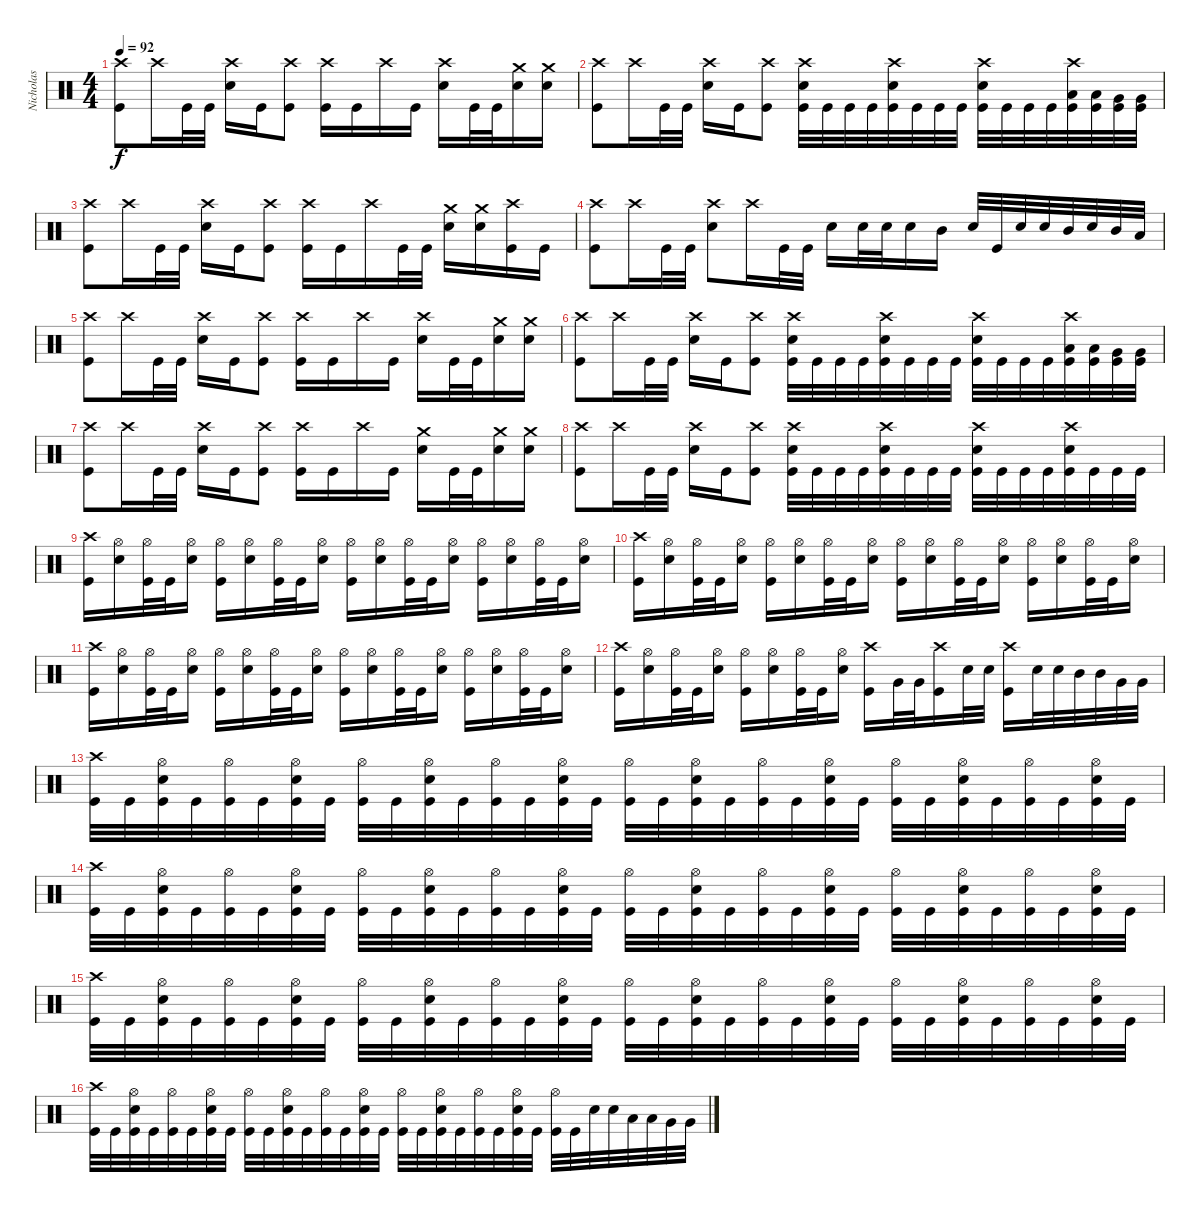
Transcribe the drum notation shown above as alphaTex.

\track ("Nicholas" "Nicholas") {instrument percussion}
\staff {score}
\articulation defaults
\ts (4 4)
\tempo 92
\clef neutral
\ks c
("Crash high (hit)" "Kick (hit)").8{dy f} "Crash high (hit)".16 "Kick (hit)".32 "Kick (hit)".32 ("Crash high (hit)" "Electric Snare (hit)").16 "Kick (hit)".16 ("Crash high (hit)" "Kick (hit)").8 ("Crash high (hit)" "Kick (hit)").16 "Kick (hit)".16 "Crash high (hit)".16 "Kick (hit)".16 ("Crash high (hit)" "Electric Snare (hit)").16 "Kick (hit)".32 "Kick (hit)".32 ("Crash medium (hit)" "Electric Snare (hit)").16 ("Crash medium (hit)" "Electric Snare (hit)").16 |
("Crash high (hit)" "Kick (hit)").8 "Crash high (hit)".16 "Kick (hit)".32 "Kick (hit)".32 ("Crash high (hit)" "Electric Snare (hit)").16 "Kick (hit)".16 ("Crash high (hit)" "Kick (hit)").8 ("Crash high (hit)" "Electric Snare (hit)" "Kick (hit)").32 "Kick (hit)".32 "Kick (hit)".32 "Kick (hit)".32 ("Crash high (hit)" "Electric Snare (hit)" "Kick (hit)").32 "Kick (hit)".32 "Kick (hit)".32 "Kick (hit)".32 ("Crash high (hit)" "Electric Snare (hit)" "Kick (hit)").32 "Kick (hit)".32 "Kick (hit)".32 "Kick (hit)".32 ("Crash high (hit)" "Low Tom (hit)" "Kick (hit)").32 ("Low Tom (hit)" "Kick (hit)").32 ("Very Low Tom (hit)" "Kick (hit)").32 ("Very Low Tom (hit)" "Kick (hit)").32 |
("Crash high (hit)" "Kick (hit)").8 "Crash high (hit)".16 "Kick (hit)".32 "Kick (hit)".32 ("Crash high (hit)" "Electric Snare (hit)").16 "Kick (hit)".16 ("Crash high (hit)" "Kick (hit)").8 ("Crash high (hit)" "Kick (hit)").16 "Kick (hit)".16 "Crash high (hit)".16 "Kick (hit)".32 "Kick (hit)".32 ("Crash medium (hit)" "Electric Snare (hit)").16 ("Crash medium (hit)" "Electric Snare (hit)").16 ("Crash high (hit)" "Kick (hit)").16 "Kick (hit)".16 |
("Crash high (hit)" "Kick (hit)").8 "Crash high (hit)".16 "Kick (hit)".32 "Kick (hit)".32 ("Crash high (hit)" "Electric Snare (hit)").8 "Crash high (hit)".16 "Kick (hit)".32 "Kick (hit)".32 "Electric Snare (hit)".16 "Electric Snare (hit)".32 "Electric Snare (hit)".32 "Electric Snare (hit)".16 "Mid Tom (hit)".16 "Electric Snare (hit)".32 "Kick (hit)".32 "Electric Snare (hit)".32 "Electric Snare (hit)".32 "Mid Tom (hit)".32 "Electric Snare (hit)".32 "Mid Tom (hit)".32 "Low Tom (hit)".32 |
("Crash high (hit)" "Kick (hit)").8 "Crash high (hit)".16 "Kick (hit)".32 "Kick (hit)".32 ("Crash high (hit)" "Electric Snare (hit)").16 "Kick (hit)".16 ("Crash high (hit)" "Kick (hit)").8 ("Crash high (hit)" "Kick (hit)").16 "Kick (hit)".16 "Crash high (hit)".16 "Kick (hit)".16 ("Crash high (hit)" "Electric Snare (hit)").16 "Kick (hit)".32 "Kick (hit)".32 ("Crash medium (hit)" "Electric Snare (hit)").16 ("Crash medium (hit)" "Electric Snare (hit)").16 |
("Crash high (hit)" "Kick (hit)").8 "Crash high (hit)".16 "Kick (hit)".32 "Kick (hit)".32 ("Crash high (hit)" "Electric Snare (hit)").16 "Kick (hit)".16 ("Crash high (hit)" "Kick (hit)").8 ("Crash high (hit)" "Electric Snare (hit)" "Kick (hit)").32 "Kick (hit)".32 "Kick (hit)".32 "Kick (hit)".32 ("Crash high (hit)" "Electric Snare (hit)" "Kick (hit)").32 "Kick (hit)".32 "Kick (hit)".32 "Kick (hit)".32 ("Crash high (hit)" "Electric Snare (hit)" "Kick (hit)").32 "Kick (hit)".32 "Kick (hit)".32 "Kick (hit)".32 ("Crash high (hit)" "Low Tom (hit)" "Kick (hit)").32 ("Low Tom (hit)" "Kick (hit)").32 ("Very Low Tom (hit)" "Kick (hit)").32 ("Very Low Tom (hit)" "Kick (hit)").32 |
("Crash high (hit)" "Kick (hit)").8 "Crash high (hit)".16 "Kick (hit)".32 "Kick (hit)".32 ("Crash high (hit)" "Electric Snare (hit)").16 "Kick (hit)".16 ("Crash high (hit)" "Kick (hit)").8 ("Crash high (hit)" "Kick (hit)").16 "Kick (hit)".16 "Crash high (hit)".16 "Kick (hit)".16 ("Crash medium (hit)" "Electric Snare (hit)").16 "Kick (hit)".32 "Kick (hit)".32 ("Crash medium (hit)" "Electric Snare (hit)").16 ("Crash medium (hit)" "Electric Snare (hit)").16 |
("Crash high (hit)" "Kick (hit)").8 "Crash high (hit)".16 "Kick (hit)".32 "Kick (hit)".32 ("Crash high (hit)" "Electric Snare (hit)").16 "Kick (hit)".16 ("Crash high (hit)" "Kick (hit)").8 ("Crash high (hit)" "Electric Snare (hit)" "Kick (hit)").32 "Kick (hit)".32 "Kick (hit)".32 "Kick (hit)".32 ("Crash high (hit)" "Electric Snare (hit)" "Kick (hit)").32 "Kick (hit)".32 "Kick (hit)".32 "Kick (hit)".32 ("Crash high (hit)" "Electric Snare (hit)" "Kick (hit)").32 "Kick (hit)".32 "Kick (hit)".32 "Kick (hit)".32 ("Crash high (hit)" "Electric Snare (hit)" "Kick (hit)").32 "Kick (hit)".32 "Kick (hit)".32 "Kick (hit)".32 |
("Crash high (hit)" "Kick (hit)").16 ("Hi-Hat (open)" "Electric Snare (hit)").16 ("Hi-Hat (open)" "Kick (hit)").32 "Kick (hit)".32 ("Hi-Hat (open)" "Electric Snare (hit)").16 ("Hi-Hat (open)" "Kick (hit)").16 ("Hi-Hat (open)" "Electric Snare (hit)").16 ("Hi-Hat (open)" "Kick (hit)").32 "Kick (hit)".32 ("Hi-Hat (open)" "Electric Snare (hit)").16 ("Hi-Hat (open)" "Kick (hit)").16 ("Hi-Hat (open)" "Electric Snare (hit)").16 ("Hi-Hat (open)" "Kick (hit)").32 "Kick (hit)".32 ("Hi-Hat (open)" "Electric Snare (hit)").16 ("Hi-Hat (open)" "Kick (hit)").16 ("Hi-Hat (open)" "Electric Snare (hit)").16 ("Hi-Hat (open)" "Kick (hit)").32 "Kick (hit)".32 ("Hi-Hat (open)" "Electric Snare (hit)").16 |
("Crash high (hit)" "Kick (hit)").16 ("Hi-Hat (open)" "Electric Snare (hit)").16 ("Hi-Hat (open)" "Kick (hit)").32 "Kick (hit)".32 ("Hi-Hat (open)" "Electric Snare (hit)").16 ("Hi-Hat (open)" "Kick (hit)").16 ("Hi-Hat (open)" "Electric Snare (hit)").16 ("Hi-Hat (open)" "Kick (hit)").32 "Kick (hit)".32 ("Hi-Hat (open)" "Electric Snare (hit)").16 ("Hi-Hat (open)" "Kick (hit)").16 ("Hi-Hat (open)" "Electric Snare (hit)").16 ("Hi-Hat (open)" "Kick (hit)").32 "Kick (hit)".32 ("Hi-Hat (open)" "Electric Snare (hit)").16 ("Hi-Hat (open)" "Kick (hit)").16 ("Hi-Hat (open)" "Electric Snare (hit)").16 ("Hi-Hat (open)" "Kick (hit)").32 "Kick (hit)".32 ("Hi-Hat (open)" "Electric Snare (hit)").16 |
("Crash high (hit)" "Kick (hit)").16 ("Hi-Hat (open)" "Electric Snare (hit)").16 ("Hi-Hat (open)" "Kick (hit)").32 "Kick (hit)".32 ("Hi-Hat (open)" "Electric Snare (hit)").16 ("Hi-Hat (open)" "Kick (hit)").16 ("Hi-Hat (open)" "Electric Snare (hit)").16 ("Hi-Hat (open)" "Kick (hit)").32 "Kick (hit)".32 ("Hi-Hat (open)" "Electric Snare (hit)").16 ("Hi-Hat (open)" "Kick (hit)").16 ("Hi-Hat (open)" "Electric Snare (hit)").16 ("Hi-Hat (open)" "Kick (hit)").32 "Kick (hit)".32 ("Hi-Hat (open)" "Electric Snare (hit)").16 ("Hi-Hat (open)" "Kick (hit)").16 ("Hi-Hat (open)" "Electric Snare (hit)").16 ("Hi-Hat (open)" "Kick (hit)").32 "Kick (hit)".32 ("Hi-Hat (open)" "Electric Snare (hit)").16 |
("Crash high (hit)" "Kick (hit)").16 ("Hi-Hat (open)" "Electric Snare (hit)").16 ("Hi-Hat (open)" "Kick (hit)").32 "Kick (hit)".32 ("Hi-Hat (open)" "Electric Snare (hit)").16 ("Hi-Hat (open)" "Kick (hit)").16 ("Hi-Hat (open)" "Electric Snare (hit)").16 ("Hi-Hat (open)" "Kick (hit)").32 "Kick (hit)".32 ("Hi-Hat (open)" "Electric Snare (hit)").16 ("Crash high (hit)" "Kick (hit)").16 "Very Low Tom (hit)".32 "Very Low Tom (hit)".32 ("Crash high (hit)" "Kick (hit)").16 "Electric Snare (hit)".32 "Electric Snare (hit)".32 ("Crash high (hit)" "Kick (hit)").16 "Electric Snare (hit)".32 "Electric Snare (hit)".32 "Mid Tom (hit)".32 "Mid Tom (hit)".32 "Very Low Tom (hit)".32 "Very Low Tom (hit)".32 |
("Crash high (hit)" "Kick (hit)").32 "Kick (hit)".32 ("Hi-Hat (open)" "Electric Snare (hit)" "Kick (hit)").32 "Kick (hit)".32 ("Hi-Hat (open)" "Kick (hit)").32 "Kick (hit)".32 ("Hi-Hat (open)" "Electric Snare (hit)" "Kick (hit)").32 "Kick (hit)".32 ("Hi-Hat (open)" "Kick (hit)").32 "Kick (hit)".32 ("Hi-Hat (open)" "Electric Snare (hit)" "Kick (hit)").32 "Kick (hit)".32 ("Hi-Hat (open)" "Kick (hit)").32 "Kick (hit)".32 ("Hi-Hat (open)" "Electric Snare (hit)" "Kick (hit)").32 "Kick (hit)".32 ("Hi-Hat (open)" "Kick (hit)").32 "Kick (hit)".32 ("Hi-Hat (open)" "Electric Snare (hit)" "Kick (hit)").32 "Kick (hit)".32 ("Hi-Hat (open)" "Kick (hit)").32 "Kick (hit)".32 ("Hi-Hat (open)" "Electric Snare (hit)" "Kick (hit)").32 "Kick (hit)".32 ("Hi-Hat (open)" "Kick (hit)").32 "Kick (hit)".32 ("Hi-Hat (open)" "Electric Snare (hit)" "Kick (hit)").32 "Kick (hit)".32 ("Hi-Hat (open)" "Kick (hit)").32 "Kick (hit)".32 ("Hi-Hat (open)" "Electric Snare (hit)" "Kick (hit)").32 "Kick (hit)".32 |
("Crash high (hit)" "Kick (hit)").32 "Kick (hit)".32 ("Hi-Hat (open)" "Electric Snare (hit)" "Kick (hit)").32 "Kick (hit)".32 ("Hi-Hat (open)" "Kick (hit)").32 "Kick (hit)".32 ("Hi-Hat (open)" "Electric Snare (hit)" "Kick (hit)").32 "Kick (hit)".32 ("Hi-Hat (open)" "Kick (hit)").32 "Kick (hit)".32 ("Hi-Hat (open)" "Electric Snare (hit)" "Kick (hit)").32 "Kick (hit)".32 ("Hi-Hat (open)" "Kick (hit)").32 "Kick (hit)".32 ("Hi-Hat (open)" "Electric Snare (hit)" "Kick (hit)").32 "Kick (hit)".32 ("Hi-Hat (open)" "Kick (hit)").32 "Kick (hit)".32 ("Hi-Hat (open)" "Electric Snare (hit)" "Kick (hit)").32 "Kick (hit)".32 ("Hi-Hat (open)" "Kick (hit)").32 "Kick (hit)".32 ("Hi-Hat (open)" "Electric Snare (hit)" "Kick (hit)").32 "Kick (hit)".32 ("Hi-Hat (open)" "Kick (hit)").32 "Kick (hit)".32 ("Hi-Hat (open)" "Electric Snare (hit)" "Kick (hit)").32 "Kick (hit)".32 ("Hi-Hat (open)" "Kick (hit)").32 "Kick (hit)".32 ("Hi-Hat (open)" "Electric Snare (hit)" "Kick (hit)").32 "Kick (hit)".32 |
("Crash high (hit)" "Kick (hit)").32 "Kick (hit)".32 ("Hi-Hat (open)" "Electric Snare (hit)" "Kick (hit)").32 "Kick (hit)".32 ("Hi-Hat (open)" "Kick (hit)").32 "Kick (hit)".32 ("Hi-Hat (open)" "Electric Snare (hit)" "Kick (hit)").32 "Kick (hit)".32 ("Hi-Hat (open)" "Kick (hit)").32 "Kick (hit)".32 ("Hi-Hat (open)" "Electric Snare (hit)" "Kick (hit)").32 "Kick (hit)".32 ("Hi-Hat (open)" "Kick (hit)").32 "Kick (hit)".32 ("Hi-Hat (open)" "Electric Snare (hit)" "Kick (hit)").32 "Kick (hit)".32 ("Hi-Hat (open)" "Kick (hit)").32 "Kick (hit)".32 ("Hi-Hat (open)" "Electric Snare (hit)" "Kick (hit)").32 "Kick (hit)".32 ("Hi-Hat (open)" "Kick (hit)").32 "Kick (hit)".32 ("Hi-Hat (open)" "Electric Snare (hit)" "Kick (hit)").32 "Kick (hit)".32 ("Hi-Hat (open)" "Kick (hit)").32 "Kick (hit)".32 ("Hi-Hat (open)" "Electric Snare (hit)" "Kick (hit)").32 "Kick (hit)".32 ("Hi-Hat (open)" "Kick (hit)").32 "Kick (hit)".32 ("Hi-Hat (open)" "Electric Snare (hit)" "Kick (hit)").32 "Kick (hit)".32 |
("Crash high (hit)" "Kick (hit)").32 "Kick (hit)".32 ("Hi-Hat (open)" "Electric Snare (hit)" "Kick (hit)").32 "Kick (hit)".32 ("Hi-Hat (open)" "Kick (hit)").32 "Kick (hit)".32 ("Hi-Hat (open)" "Electric Snare (hit)" "Kick (hit)").32 "Kick (hit)".32 ("Hi-Hat (open)" "Kick (hit)").32 "Kick (hit)".32 ("Hi-Hat (open)" "Electric Snare (hit)" "Kick (hit)").32 "Kick (hit)".32 ("Hi-Hat (open)" "Kick (hit)").32 "Kick (hit)".32 ("Hi-Hat (open)" "Electric Snare (hit)" "Kick (hit)").32 "Kick (hit)".32 ("Hi-Hat (open)" "Kick (hit)").32 "Kick (hit)".32 ("Hi-Hat (open)" "Electric Snare (hit)" "Kick (hit)").32 "Kick (hit)".32 ("Hi-Hat (open)" "Kick (hit)").32 "Kick (hit)".32 ("Hi-Hat (open)" "Electric Snare (hit)" "Kick (hit)").32 "Kick (hit)".32 ("Hi-Hat (open)" "Kick (hit)").32 "Kick (hit)".32 "Electric Snare (hit)".32 "Electric Snare (hit)".32 "Low Tom (hit)".32 "Low Tom (hit)".32 "Very Low Tom (hit)".32 "Very Low Tom (hit)".32
